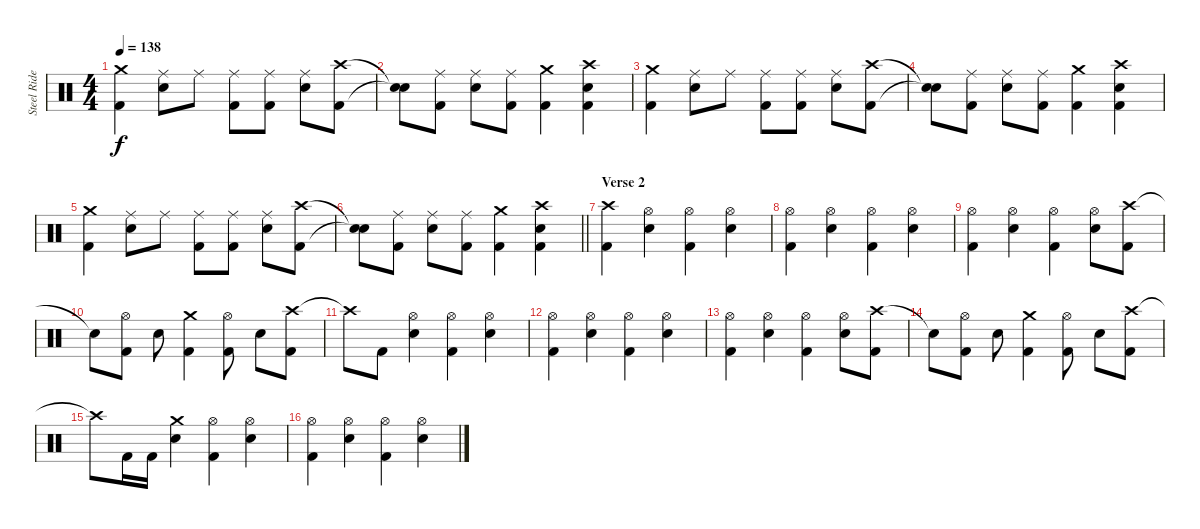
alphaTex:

\track ("Steel Rider" "Steel Ride") {instrument percussion}
\staff {score}
\articulation defaults
\ts (4 4)
\tempo 138
\clef neutral
\ks c
("Crash medium (hit)" "Kick (hit) 2").4{dy f} ("Ride (middle)" "Electric Snare (hit)").8 "Ride (middle)".8 ("Ride (middle)" "Kick (hit) 2").8 ("Ride (middle)" "Kick (hit) 2").8 ("Ride (middle)" "Electric Snare (hit)").8 ("Crash high (hit)" "Kick (hit) 2").8 |
("Snare (hit)"{t} "Snare (hit)"{t}).8 ("Ride (middle)" "Kick (hit) 2").8 ("Ride (middle)" "Electric Snare (hit)").8 ("Ride (middle)" "Kick (hit) 2").8 ("Crash medium (hit)" "Kick (hit) 2").4 ("Crash high (hit)" "Electric Snare (hit)" "Kick (hit) 2").4 |
("Crash medium (hit)" "Kick (hit) 2").4 ("Ride (middle)" "Electric Snare (hit)").8 "Ride (middle)".8 ("Ride (middle)" "Kick (hit) 2").8 ("Ride (middle)" "Kick (hit) 2").8 ("Ride (middle)" "Electric Snare (hit)").8 ("Crash high (hit)" "Kick (hit) 2").8 |
("Snare (hit)"{t} "Snare (hit)"{t}).8 ("Ride (middle)" "Kick (hit) 2").8 ("Ride (middle)" "Electric Snare (hit)").8 ("Ride (middle)" "Kick (hit) 2").8 ("Crash medium (hit)" "Kick (hit) 2").4 ("Crash high (hit)" "Electric Snare (hit)" "Kick (hit) 2").4 |
("Crash medium (hit)" "Kick (hit) 2").4 ("Ride (middle)" "Electric Snare (hit)").8 "Ride (middle)".8 ("Ride (middle)" "Kick (hit) 2").8 ("Ride (middle)" "Kick (hit) 2").8 ("Ride (middle)" "Electric Snare (hit)").8 ("Crash high (hit)" "Kick (hit) 2").8 |
\barLineRight lightlight
("Snare (hit)"{t} "Snare (hit)"{t}).8 ("Ride (middle)" "Kick (hit) 2").8 ("Ride (middle)" "Electric Snare (hit)").8 ("Ride (middle)" "Kick (hit) 2").8 ("Crash medium (hit)" "Kick (hit) 2").4 ("Crash high (hit)" "Electric Snare (hit)" "Kick (hit) 2").4 |
\section ("" "Verse 2")
("Crash high (hit)" "Kick (hit) 2").4 ("Hi-Hat (open)" "Electric Snare (hit)").4 ("Hi-Hat (open)" "Kick (hit) 2").4 ("Hi-Hat (open)" "Electric Snare (hit)").4 |
("Hi-Hat (open)" "Kick (hit) 2").4 ("Hi-Hat (open)" "Electric Snare (hit)").4 ("Hi-Hat (open)" "Kick (hit) 2").4 ("Hi-Hat (open)" "Electric Snare (hit)").4 |
("Hi-Hat (open)" "Kick (hit) 2").4 ("Hi-Hat (open)" "Electric Snare (hit)").4 ("Hi-Hat (open)" "Kick (hit) 2").4 ("Hi-Hat (open)" "Electric Snare (hit)").8 ("Crash high (hit)" "Kick (hit) 2").8 |
"Snare (hit)"{t}.8 ("Hi-Hat (open)" "Kick (hit) 2").8 "Electric Snare (hit)".8 ("Crash medium (hit)" "Kick (hit) 2").4 ("Hi-Hat (open)" "Kick (hit) 2").8 "Electric Snare (hit)".8 ("Crash high (hit)" "Kick (hit) 2").8 |
"Crash high (hit)"{t}.8 "Kick (hit) 2".8 ("Hi-Hat (open)" "Electric Snare (hit)").4 ("Hi-Hat (open)" "Kick (hit) 2").4 ("Hi-Hat (open)" "Electric Snare (hit)").4 |
("Hi-Hat (open)" "Kick (hit) 2").4 ("Hi-Hat (open)" "Electric Snare (hit)").4 ("Hi-Hat (open)" "Kick (hit) 2").4 ("Hi-Hat (open)" "Electric Snare (hit)").4 |
("Hi-Hat (open)" "Kick (hit) 2").4 ("Hi-Hat (open)" "Electric Snare (hit)").4 ("Hi-Hat (open)" "Kick (hit) 2").4 ("Hi-Hat (open)" "Electric Snare (hit)").8 ("Crash high (hit)" "Kick (hit) 2").8 |
"Snare (hit)"{t}.8 ("Hi-Hat (open)" "Kick (hit) 2").8 "Electric Snare (hit)".8 ("Crash medium (hit)" "Kick (hit) 2").4 ("Hi-Hat (open)" "Kick (hit) 2").8 "Electric Snare (hit)".8 ("Crash high (hit)" "Kick (hit) 2").8 |
"Crash high (hit)"{t}.8 "Kick (hit) 2".16 "Kick (hit) 2".16 ("Crash medium (hit)" "Electric Snare (hit)").4 ("Hi-Hat (open)" "Kick (hit) 2").4 ("Hi-Hat (open)" "Electric Snare (hit)").4 |
("Hi-Hat (open)" "Kick (hit) 2").4 ("Hi-Hat (open)" "Electric Snare (hit)").4 ("Hi-Hat (open)" "Kick (hit) 2").4 ("Hi-Hat (open)" "Electric Snare (hit)").4
